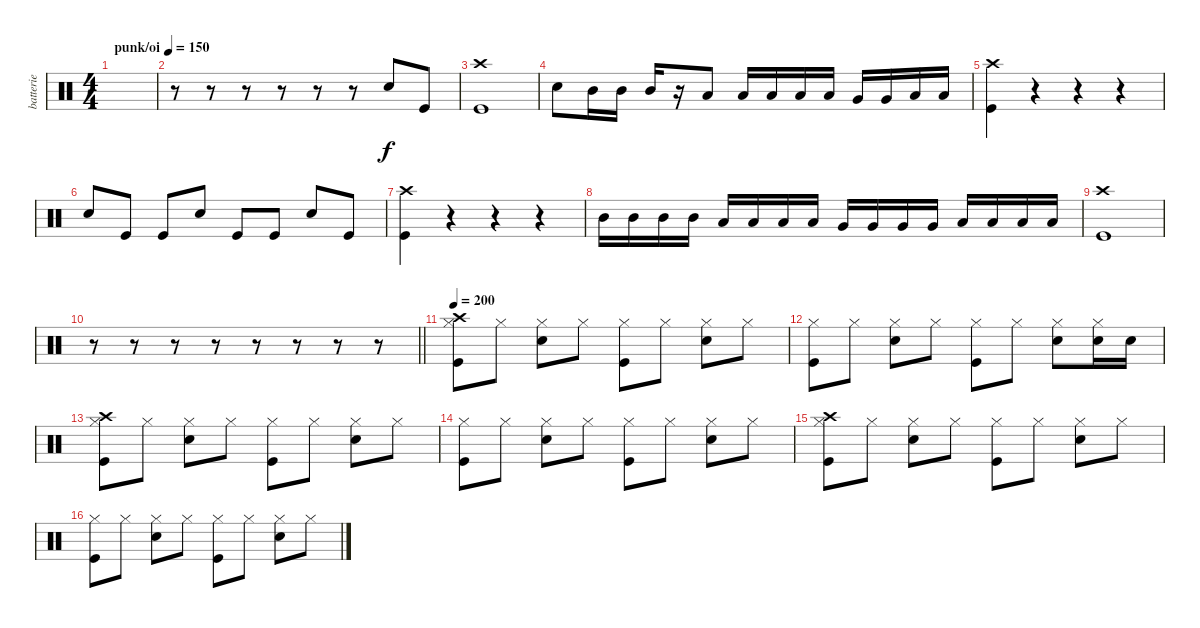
\track ("batterie" "batterie") {instrument percussion}
\staff {score}
\articulation defaults
\ts (4 4)
\tempo (150 "punk/oi")
\clef neutral
\ks c
|
r.8 r.8 r.8 r.8 r.8 r.8 "Electric Snare (hit)".8 "Kick (hit)".8 |
("Crash high (hit)" "Kick (hit)").1 |
"Electric Snare (hit)".8 "Mid Tom (hit)".16 "Mid Tom (hit)".16 "Mid Tom (hit)".16 r.16 "Low Tom (hit)".8 "Low Tom (hit)".16 "Low Tom (hit)".16 "Low Tom (hit)".16 "Low Tom (hit)".16 "Very Low Tom (hit)".16 "Very Low Tom (hit)".16 "Low Floor Tom (hit)".16 "Low Floor Tom (hit)".16 |
("Crash high (hit)" "Kick (hit)").4 r.4 r.4 r.4 |
"Electric Snare (hit)".8 "Kick (hit)".8 "Kick (hit)".8 "Electric Snare (hit)".8 "Kick (hit)".8 "Kick (hit)".8 "Electric Snare (hit)".8 "Kick (hit)".8 |
("Crash high (hit)" "Kick (hit)").4 r.4 r.4 r.4 |
"Mid Tom (hit)".16 "Mid Tom (hit)".16 "Mid Tom (hit)".16 "Mid Tom (hit)".16 "Low Tom (hit)".16 "Low Tom (hit)".16 "Low Tom (hit)".16 "Low Tom (hit)".16 "Very Low Tom (hit)".16 "Very Low Tom (hit)".16 "Very Low Tom (hit)".16 "Very Low Tom (hit)".16 "Low Floor Tom (hit)".16 "Low Floor Tom (hit)".16 "Low Floor Tom (hit)".16 "Low Floor Tom (hit)".16 |
("Crash high (hit)" "Kick (hit)").1 |
\barLineRight lightlight
r.8 r.8 r.8 r.8 r.8 r.8 r.8 r.8 |
\section ("" "")
\tempo 200
("Hi-Hat (closed)" "Crash high (hit)" "Kick (hit)").8 "Hi-Hat (closed)".8 ("Hi-Hat (closed)" "Electric Snare (hit)").8 "Hi-Hat (closed)".8 ("Hi-Hat (closed)" "Kick (hit)").8 "Hi-Hat (closed)".8 ("Hi-Hat (closed)" "Electric Snare (hit)").8 "Hi-Hat (closed)".8 |
("Hi-Hat (closed)" "Kick (hit)").8 "Hi-Hat (closed)".8 ("Hi-Hat (closed)" "Electric Snare (hit)").8 "Hi-Hat (closed)".8 ("Hi-Hat (closed)" "Kick (hit)").8 "Hi-Hat (closed)".8 ("Hi-Hat (closed)" "Electric Snare (hit)").8 ("Hi-Hat (closed)" "Electric Snare (hit)").16 "Electric Snare (hit)".16 |
("Hi-Hat (closed)" "Crash high (hit)" "Kick (hit)").8 "Hi-Hat (closed)".8 ("Hi-Hat (closed)" "Electric Snare (hit)").8 "Hi-Hat (closed)".8 ("Hi-Hat (closed)" "Kick (hit)").8 "Hi-Hat (closed)".8 ("Hi-Hat (closed)" "Electric Snare (hit)").8 "Hi-Hat (closed)".8 |
("Hi-Hat (closed)" "Kick (hit)").8 "Hi-Hat (closed)".8 ("Hi-Hat (closed)" "Electric Snare (hit)").8 "Hi-Hat (closed)".8 ("Hi-Hat (closed)" "Kick (hit)").8 "Hi-Hat (closed)".8 ("Hi-Hat (closed)" "Electric Snare (hit)").8 "Hi-Hat (closed)".8 |
("Hi-Hat (closed)" "Crash high (hit)" "Kick (hit)").8 "Hi-Hat (closed)".8 ("Hi-Hat (closed)" "Electric Snare (hit)").8 "Hi-Hat (closed)".8 ("Hi-Hat (closed)" "Kick (hit)").8 "Hi-Hat (closed)".8 ("Hi-Hat (closed)" "Electric Snare (hit)").8 "Hi-Hat (closed)".8 |
("Hi-Hat (closed)" "Kick (hit)").8 "Hi-Hat (closed)".8 ("Hi-Hat (closed)" "Electric Snare (hit)").8 "Hi-Hat (closed)".8 ("Hi-Hat (closed)" "Kick (hit)").8 "Hi-Hat (closed)".8 ("Hi-Hat (closed)" "Electric Snare (hit)").8 "Hi-Hat (closed)".8
